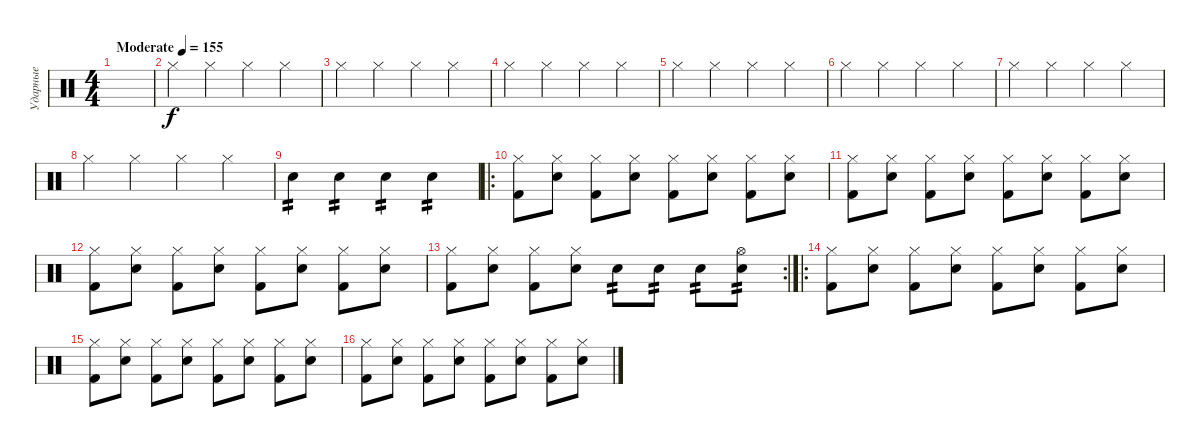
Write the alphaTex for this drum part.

\track ("Ударные" "Ударные") {instrument percussion}
\staff {score}
\articulation defaults
\ts (4 4)
\tempo (155 "Moderate")
\clef neutral
\ks c
|
"Hi-Hat (closed)".4 "Hi-Hat (closed)".4 "Hi-Hat (closed)".4 "Hi-Hat (closed)".4 |
"Hi-Hat (closed)".4 "Hi-Hat (closed)".4 "Hi-Hat (closed)".4 "Hi-Hat (closed)".4 |
"Hi-Hat (closed)".4 "Hi-Hat (closed)".4 "Hi-Hat (closed)".4 "Hi-Hat (closed)".4 |
"Hi-Hat (closed)".4 "Hi-Hat (closed)".4 "Hi-Hat (closed)".4 "Hi-Hat (closed)".4 |
"Hi-Hat (closed)".4 "Hi-Hat (closed)".4 "Hi-Hat (closed)".4 "Hi-Hat (closed)".4 |
"Hi-Hat (closed)".4 "Hi-Hat (closed)".4 "Hi-Hat (closed)".4 "Hi-Hat (closed)".4 |
"Hi-Hat (closed)".4 "Hi-Hat (closed)".4 "Hi-Hat (closed)".4 "Hi-Hat (closed)".4 |
"Electric Snare (hit)".4{tp 2} "Electric Snare (hit)".4{tp 2} "Electric Snare (hit)".4{tp 2} "Electric Snare (hit)".4{tp 2} |
\ro
("Hi-Hat (closed)" "Kick (hit) 2").8 ("Hi-Hat (closed)" "Electric Snare (hit)").8 ("Hi-Hat (closed)" "Kick (hit) 2").8 ("Hi-Hat (closed)" "Electric Snare (hit)").8 ("Hi-Hat (closed)" "Kick (hit) 2").8 ("Hi-Hat (closed)" "Electric Snare (hit)").8 ("Hi-Hat (closed)" "Kick (hit) 2").8 ("Hi-Hat (closed)" "Electric Snare (hit)").8 |
("Hi-Hat (closed)" "Kick (hit) 2").8 ("Hi-Hat (closed)" "Electric Snare (hit)").8 ("Hi-Hat (closed)" "Kick (hit) 2").8 ("Hi-Hat (closed)" "Electric Snare (hit)").8 ("Hi-Hat (closed)" "Kick (hit) 2").8 ("Hi-Hat (closed)" "Electric Snare (hit)").8 ("Hi-Hat (closed)" "Kick (hit) 2").8 ("Hi-Hat (closed)" "Electric Snare (hit)").8 |
("Hi-Hat (closed)" "Kick (hit) 2").8 ("Hi-Hat (closed)" "Electric Snare (hit)").8 ("Hi-Hat (closed)" "Kick (hit) 2").8 ("Hi-Hat (closed)" "Electric Snare (hit)").8 ("Hi-Hat (closed)" "Kick (hit) 2").8 ("Hi-Hat (closed)" "Electric Snare (hit)").8 ("Hi-Hat (closed)" "Kick (hit) 2").8 ("Hi-Hat (closed)" "Electric Snare (hit)").8 |
\rc 2
("Hi-Hat (closed)" "Kick (hit) 2").8 ("Hi-Hat (closed)" "Electric Snare (hit)").8 ("Hi-Hat (closed)" "Kick (hit) 2").8 ("Hi-Hat (closed)" "Electric Snare (hit)").8 "Electric Snare (hit)".8{tp 2} "Electric Snare (hit)".8{tp 2} "Electric Snare (hit)".8{tp 2} ("Hi-Hat (open)" "Electric Snare (hit)").8{tp 2} |
\ro
("Hi-Hat (closed)" "Kick (hit) 2").8 ("Hi-Hat (closed)" "Electric Snare (hit)").8 ("Hi-Hat (closed)" "Kick (hit) 2").8 ("Hi-Hat (closed)" "Electric Snare (hit)").8 ("Hi-Hat (closed)" "Kick (hit) 2").8 ("Hi-Hat (closed)" "Electric Snare (hit)").8 ("Hi-Hat (closed)" "Kick (hit) 2").8 ("Hi-Hat (closed)" "Electric Snare (hit)").8 |
("Hi-Hat (closed)" "Kick (hit) 2").8 ("Hi-Hat (closed)" "Electric Snare (hit)").8 ("Hi-Hat (closed)" "Kick (hit) 2").8 ("Hi-Hat (closed)" "Electric Snare (hit)").8 ("Hi-Hat (closed)" "Kick (hit) 2").8 ("Hi-Hat (closed)" "Electric Snare (hit)").8 ("Hi-Hat (closed)" "Kick (hit) 2").8 ("Hi-Hat (closed)" "Electric Snare (hit)").8 |
("Hi-Hat (closed)" "Kick (hit) 2").8 ("Hi-Hat (closed)" "Electric Snare (hit)").8 ("Hi-Hat (closed)" "Kick (hit) 2").8 ("Hi-Hat (closed)" "Electric Snare (hit)").8 ("Hi-Hat (closed)" "Kick (hit) 2").8 ("Hi-Hat (closed)" "Electric Snare (hit)").8 ("Hi-Hat (closed)" "Kick (hit) 2").8 ("Hi-Hat (closed)" "Electric Snare (hit)").8
